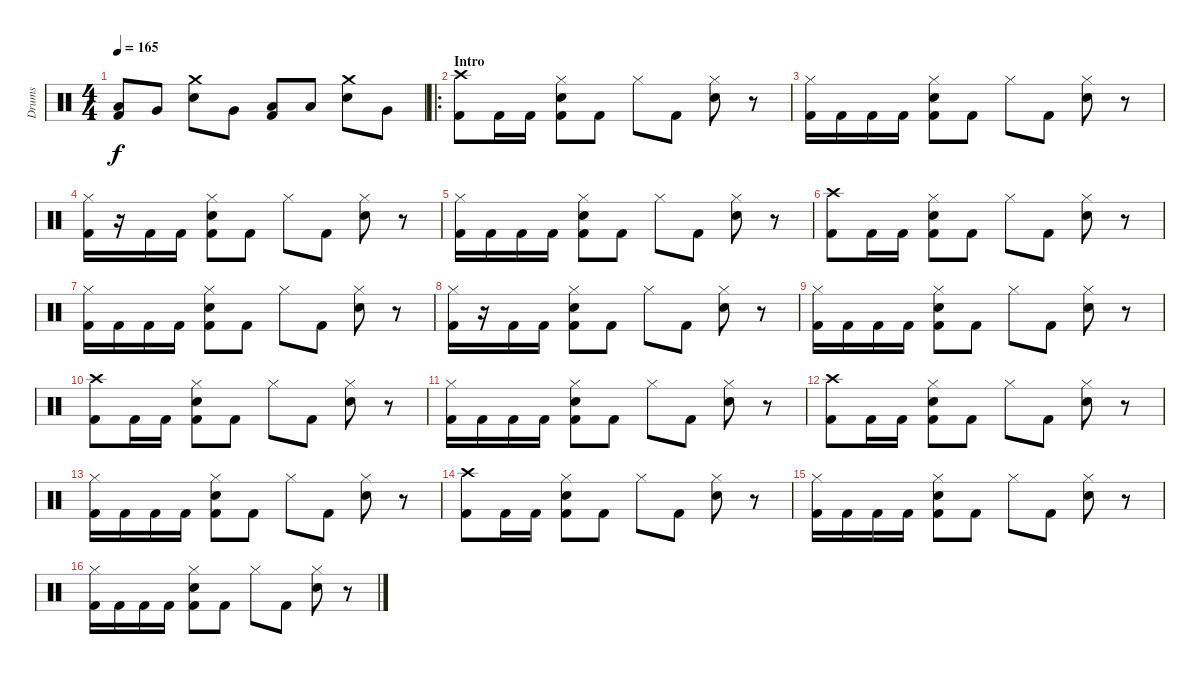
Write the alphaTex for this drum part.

\track ("Drums" "Drums") {instrument percussion}
\staff {score}
\articulation defaults
\ts (4 4)
\tempo 165
\clef neutral
\ks c
("Low Tom (hit)" "Kick (hit) 2").8{dy f} "Very Low Tom (hit)".8 ("Crash medium (hit)" "Electric Snare (hit)").8 "Very Low Tom (hit)".8 ("Low Tom (hit)" "Kick (hit) 2").8 "Low Tom (hit)".8 ("Crash medium (hit)" "Electric Snare (hit)").8 "Very Low Tom (hit)".8 |
\ro
\section ("" "Intro")
("Crash high (hit)" "Kick (hit) 2").8 "Kick (hit) 2".16 "Kick (hit) 2".16 ("Hi-Hat (closed)" "Electric Snare (hit)" "Kick (hit) 2").8 "Kick (hit) 2".8 "Hi-Hat (closed)".8 "Kick (hit) 2".8 ("Hi-Hat (closed)" "Electric Snare (hit)").8 r.8 |
("Hi-Hat (closed)" "Kick (hit) 2").16 "Kick (hit) 2".16 "Kick (hit) 2".16 "Kick (hit) 2".16 ("Hi-Hat (closed)" "Electric Snare (hit)" "Kick (hit) 2").8 "Kick (hit) 2".8 "Hi-Hat (closed)".8 "Kick (hit) 2".8 ("Hi-Hat (closed)" "Electric Snare (hit)").8 r.8 |
("Hi-Hat (closed)" "Kick (hit) 2").16 r.16 "Kick (hit) 2".16 "Kick (hit) 2".16 ("Hi-Hat (closed)" "Electric Snare (hit)" "Kick (hit) 2").8 "Kick (hit) 2".8 "Hi-Hat (closed)".8 "Kick (hit) 2".8 ("Hi-Hat (closed)" "Electric Snare (hit)").8 r.8 |
("Hi-Hat (closed)" "Kick (hit) 2").16 "Kick (hit) 2".16 "Kick (hit) 2".16 "Kick (hit) 2".16 ("Hi-Hat (closed)" "Electric Snare (hit)" "Kick (hit) 2").8 "Kick (hit) 2".8 "Hi-Hat (closed)".8 "Kick (hit) 2".8 ("Hi-Hat (closed)" "Electric Snare (hit)").8 r.8 |
("Crash high (hit)" "Kick (hit) 2").8 "Kick (hit) 2".16 "Kick (hit) 2".16 ("Hi-Hat (closed)" "Electric Snare (hit)" "Kick (hit) 2").8 "Kick (hit) 2".8 "Hi-Hat (closed)".8 "Kick (hit) 2".8 ("Hi-Hat (closed)" "Electric Snare (hit)").8 r.8 |
("Hi-Hat (closed)" "Kick (hit) 2").16 "Kick (hit) 2".16 "Kick (hit) 2".16 "Kick (hit) 2".16 ("Hi-Hat (closed)" "Electric Snare (hit)" "Kick (hit) 2").8 "Kick (hit) 2".8 "Hi-Hat (closed)".8 "Kick (hit) 2".8 ("Hi-Hat (closed)" "Electric Snare (hit)").8 r.8 |
("Hi-Hat (closed)" "Kick (hit) 2").16 r.16 "Kick (hit) 2".16 "Kick (hit) 2".16 ("Hi-Hat (closed)" "Electric Snare (hit)" "Kick (hit) 2").8 "Kick (hit) 2".8 "Hi-Hat (closed)".8 "Kick (hit) 2".8 ("Hi-Hat (closed)" "Electric Snare (hit)").8 r.8 |
("Hi-Hat (closed)" "Kick (hit) 2").16 "Kick (hit) 2".16 "Kick (hit) 2".16 "Kick (hit) 2".16 ("Hi-Hat (closed)" "Electric Snare (hit)" "Kick (hit) 2").8 "Kick (hit) 2".8 "Hi-Hat (closed)".8 "Kick (hit) 2".8 ("Hi-Hat (closed)" "Electric Snare (hit)").8 r.8 |
("Crash high (hit)" "Kick (hit) 2").8 "Kick (hit) 2".16 "Kick (hit) 2".16 ("Hi-Hat (closed)" "Electric Snare (hit)" "Kick (hit) 2").8 "Kick (hit) 2".8 "Hi-Hat (closed)".8 "Kick (hit) 2".8 ("Hi-Hat (closed)" "Electric Snare (hit)").8 r.8 |
("Hi-Hat (closed)" "Kick (hit) 2").16 "Kick (hit) 2".16 "Kick (hit) 2".16 "Kick (hit) 2".16 ("Hi-Hat (closed)" "Electric Snare (hit)" "Kick (hit) 2").8 "Kick (hit) 2".8 "Hi-Hat (closed)".8 "Kick (hit) 2".8 ("Hi-Hat (closed)" "Electric Snare (hit)").8 r.8 |
("Crash high (hit)" "Kick (hit) 2").8 "Kick (hit) 2".16 "Kick (hit) 2".16 ("Hi-Hat (closed)" "Electric Snare (hit)" "Kick (hit) 2").8 "Kick (hit) 2".8 "Hi-Hat (closed)".8 "Kick (hit) 2".8 ("Hi-Hat (closed)" "Electric Snare (hit)").8 r.8 |
("Hi-Hat (closed)" "Kick (hit) 2").16 "Kick (hit) 2".16 "Kick (hit) 2".16 "Kick (hit) 2".16 ("Hi-Hat (closed)" "Electric Snare (hit)" "Kick (hit) 2").8 "Kick (hit) 2".8 "Hi-Hat (closed)".8 "Kick (hit) 2".8 ("Hi-Hat (closed)" "Electric Snare (hit)").8 r.8 |
("Crash high (hit)" "Kick (hit) 2").8 "Kick (hit) 2".16 "Kick (hit) 2".16 ("Hi-Hat (closed)" "Electric Snare (hit)" "Kick (hit) 2").8 "Kick (hit) 2".8 "Hi-Hat (closed)".8 "Kick (hit) 2".8 ("Hi-Hat (closed)" "Electric Snare (hit)").8 r.8 |
("Hi-Hat (closed)" "Kick (hit) 2").16 "Kick (hit) 2".16 "Kick (hit) 2".16 "Kick (hit) 2".16 ("Hi-Hat (closed)" "Electric Snare (hit)" "Kick (hit) 2").8 "Kick (hit) 2".8 "Hi-Hat (closed)".8 "Kick (hit) 2".8 ("Hi-Hat (closed)" "Electric Snare (hit)").8 r.8 |
("Hi-Hat (closed)" "Kick (hit) 2").16 "Kick (hit) 2".16 "Kick (hit) 2".16 "Kick (hit) 2".16 ("Hi-Hat (closed)" "Electric Snare (hit)" "Kick (hit) 2").8 "Kick (hit) 2".8 "Hi-Hat (closed)".8 "Kick (hit) 2".8 ("Hi-Hat (closed)" "Electric Snare (hit)").8 r.8
